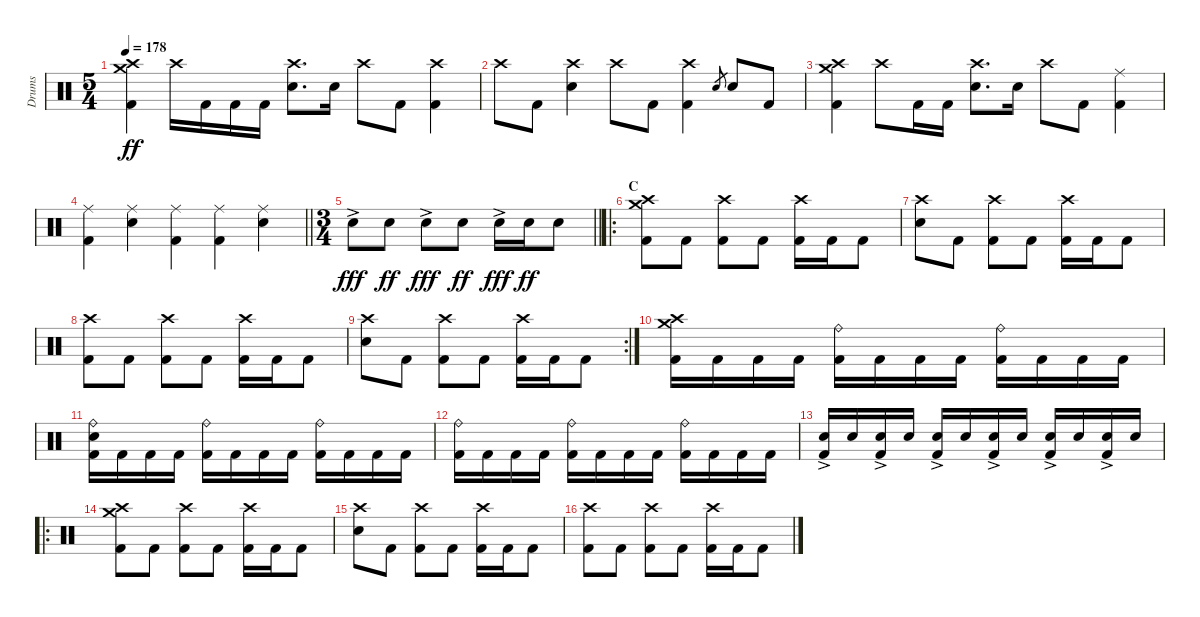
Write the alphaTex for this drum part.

\track ("Drums" "Drums") {instrument percussion}
\staff {score}
\articulation defaults
\ts (5 4)
\tempo 178
\clef neutral
\ks c
("Crash medium (hit)" "Crash high (hit)" "Kick (hit) 2").4{dy ff} "Crash high (hit)".16 "Kick (hit) 2".16 "Kick (hit) 2".16 "Kick (hit) 2".16 ("Crash high (hit)" "Electric Snare (hit)").8{d} "Electric Snare (hit)".16 "Crash high (hit)".8 "Kick (hit) 2".8 ("Crash high (hit)" "Kick (hit) 2").4 |
"Crash high (hit)".8 "Kick (hit) 2".8 ("Crash high (hit)" "Electric Snare (hit)").4 "Crash high (hit)".8 "Kick (hit) 2".8 ("Crash high (hit)" "Kick (hit) 2").4 "Electric Snare (hit)".8{gr} "Electric Snare (hit)".8 "Kick (hit) 2".8 |
("Crash medium (hit)" "Crash high (hit)" "Kick (hit) 2").4 "Crash high (hit)".8 "Kick (hit) 2".16 "Kick (hit) 2".16 ("Crash high (hit)" "Electric Snare (hit)").8{d} "Electric Snare (hit)".16 "Crash high (hit)".8 "Kick (hit) 2".8 ("Ride (middle)" "Kick (hit) 2").4 |
\barLineRight lightlight
("Ride (middle)" "Kick (hit) 2").4 ("Ride (middle)" "Electric Snare (hit)").4 ("Ride (middle)" "Kick (hit) 2").4 ("Ride (middle)" "Kick (hit) 2").4 ("Ride (middle)" "Electric Snare (hit)").4 |
\ts (3 4)
\section ("" "")
\barLineRight lightlight "Electric Snare (hit)"{ac}.8{dy fff} "Electric Snare (hit)".8{dy ff} "Electric Snare (hit)"{ac}.8{dy fff} "Electric Snare (hit)".8{dy ff} "Electric Snare (hit)"{ac}.16{dy fff} "Electric Snare (hit)".16{dy ff} "Electric Snare (hit)".8
|
\ro
\section ("" "C")
("Crash medium (hit)" "Crash high (hit)" "Kick (hit) 2").8 "Kick (hit) 2".8 ("Crash high (hit)" "Kick (hit) 2").8 "Kick (hit) 2".8 ("Crash high (hit)" "Kick (hit) 2").16 "Kick (hit) 2".16 "Kick (hit) 2".8 |
("Crash high (hit)" "Electric Snare (hit)").8 "Kick (hit) 2".8 ("Crash high (hit)" "Kick (hit) 2").8 "Kick (hit) 2".8 ("Crash high (hit)" "Kick (hit) 2").16 "Kick (hit) 2".16 "Kick (hit) 2".8 |
("Crash high (hit)" "Kick (hit) 2").8 "Kick (hit) 2".8 ("Crash high (hit)" "Kick (hit) 2").8 "Kick (hit) 2".8 ("Crash high (hit)" "Kick (hit) 2").16 "Kick (hit) 2".16 "Kick (hit) 2".8 |
\rc 2
("Crash high (hit)" "Electric Snare (hit)").8 "Kick (hit) 2".8 ("Crash high (hit)" "Kick (hit) 2").8 "Kick (hit) 2".8 ("Crash high (hit)" "Kick (hit) 2").16 "Kick (hit) 2".16 "Kick (hit) 2".8 |
("Crash medium (hit)" "Crash high (hit)" "Kick (hit) 2").16 "Kick (hit) 2".16 "Kick (hit) 2".16 "Kick (hit) 2".16 ("Ride (bell)" "Kick (hit) 2").16 "Kick (hit) 2".16 "Kick (hit) 2".16 "Kick (hit) 2".16 ("Ride (bell)" "Kick (hit) 2").16 "Kick (hit) 2".16 "Kick (hit) 2".16 "Kick (hit) 2".16 |
("Ride (bell)" "Electric Snare (hit)" "Kick (hit) 2").16 "Kick (hit) 2".16 "Kick (hit) 2".16 "Kick (hit) 2".16 ("Ride (bell)" "Kick (hit) 2").16 "Kick (hit) 2".16 "Kick (hit) 2".16 "Kick (hit) 2".16 ("Ride (bell)" "Kick (hit) 2").16 "Kick (hit) 2".16 "Kick (hit) 2".16 "Kick (hit) 2".16 |
("Ride (bell)" "Kick (hit) 2").16 "Kick (hit) 2".16 "Kick (hit) 2".16 "Kick (hit) 2".16 ("Ride (bell)" "Kick (hit) 2").16 "Kick (hit) 2".16 "Kick (hit) 2".16 "Kick (hit) 2".16 ("Ride (bell)" "Kick (hit) 2").16 "Kick (hit) 2".16 "Kick (hit) 2".16 "Kick (hit) 2".16 |
("Electric Snare (hit)"{ac} "Kick (hit) 2").16 "Electric Snare (hit)".16 ("Electric Snare (hit)"{ac} "Kick (hit) 2").16 "Electric Snare (hit)".16 ("Electric Snare (hit)"{ac} "Kick (hit) 2").16 "Electric Snare (hit)".16 ("Electric Snare (hit)"{ac} "Kick (hit) 2").16 "Electric Snare (hit)".16 ("Electric Snare (hit)"{ac} "Kick (hit) 2").16 "Electric Snare (hit)".16 ("Electric Snare (hit)"{ac} "Kick (hit) 2").16 "Electric Snare (hit)".16 |
\ro
("Crash medium (hit)" "Crash high (hit)" "Kick (hit) 2").8 "Kick (hit) 2".8 ("Crash high (hit)" "Kick (hit) 2").8 "Kick (hit) 2".8 ("Crash high (hit)" "Kick (hit) 2").16 "Kick (hit) 2".16 "Kick (hit) 2".8 |
("Crash high (hit)" "Electric Snare (hit)").8 "Kick (hit) 2".8 ("Crash high (hit)" "Kick (hit) 2").8 "Kick (hit) 2".8 ("Crash high (hit)" "Kick (hit) 2").16 "Kick (hit) 2".16 "Kick (hit) 2".8 |
("Crash high (hit)" "Kick (hit) 2").8 "Kick (hit) 2".8 ("Crash high (hit)" "Kick (hit) 2").8 "Kick (hit) 2".8 ("Crash high (hit)" "Kick (hit) 2").16 "Kick (hit) 2".16 "Kick (hit) 2".8
